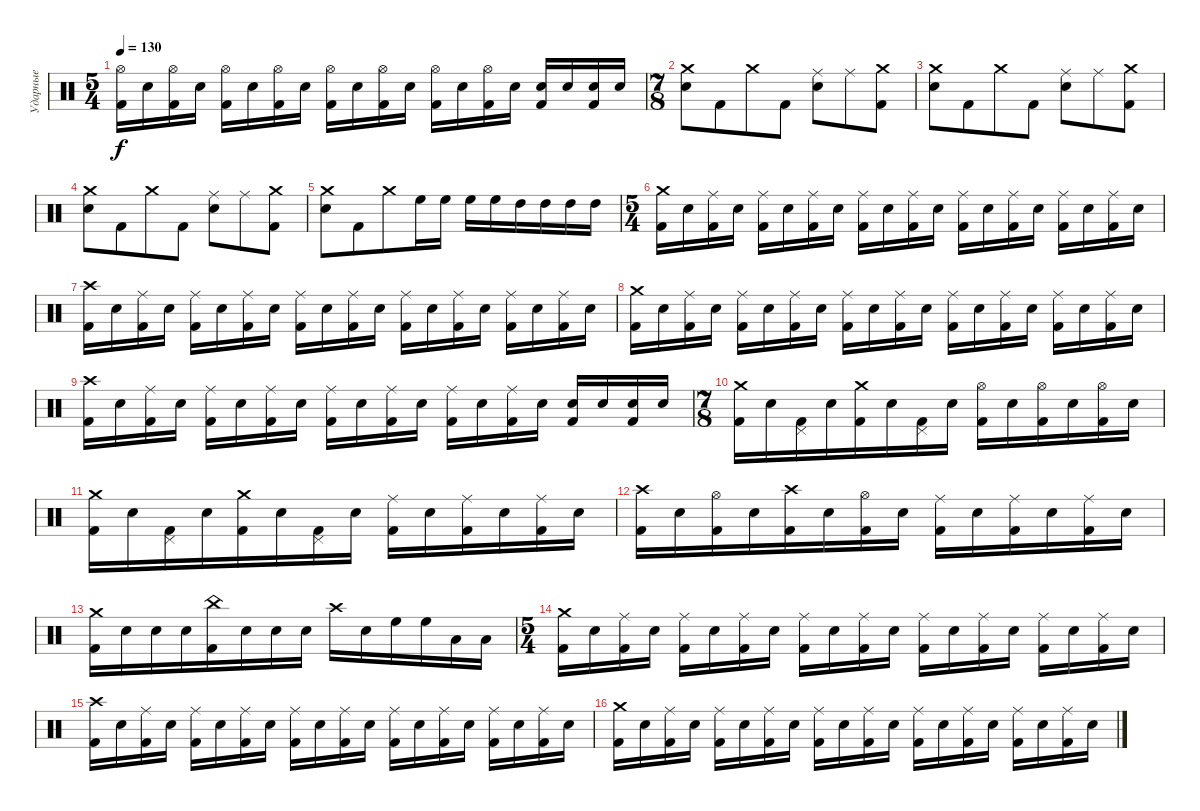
\track ("Ударные" "Ударные") {instrument percussion}
\staff {score}
\articulation defaults
\ts (5 4)
\tempo 130
\clef neutral
\ks c
("Hi-Hat (open)" "Kick (hit) 2").16{dy f} "Electric Snare (hit)".16 ("Hi-Hat (open)" "Kick (hit) 2").16 "Electric Snare (hit)".16 ("Hi-Hat (open)" "Kick (hit) 2").16 "Electric Snare (hit)".16 ("Hi-Hat (open)" "Kick (hit) 2").16 "Electric Snare (hit)".16 ("Hi-Hat (open)" "Kick (hit) 2").16 "Electric Snare (hit)".16 ("Hi-Hat (open)" "Kick (hit) 2").16 "Electric Snare (hit)".16 ("Hi-Hat (open)" "Kick (hit) 2").16 "Electric Snare (hit)".16 ("Hi-Hat (open)" "Kick (hit) 2").16 "Electric Snare (hit)".16 ("Electric Snare (hit)" "Kick (hit) 2").16 "Electric Snare (hit)".16 ("Electric Snare (hit)" "Kick (hit) 2").16 "Electric Snare (hit)".16 |
\ts (7 8)
("Crash medium (hit)" "Electric Snare (hit)").8 "Kick (hit) 2".8 "Crash medium (hit)".8 "Kick (hit) 2".8 ("Ride (middle)" "Electric Snare (hit)").8 "Ride (middle)".8 ("Crash medium (hit)" "Kick (hit) 2").8 |
("Crash medium (hit)" "Electric Snare (hit)").8 "Kick (hit) 2".8 "Crash medium (hit)".8 "Kick (hit) 2".8 ("Ride (middle)" "Electric Snare (hit)").8 "Ride (middle)".8 ("Crash medium (hit)" "Kick (hit) 2").8 |
("Crash medium (hit)" "Electric Snare (hit)").8 "Kick (hit) 2".8 "Crash medium (hit)".8 "Kick (hit) 2".8 ("Ride (middle)" "Electric Snare (hit)").8 "Ride (middle)".8 ("Crash medium (hit)" "Kick (hit) 2").8 |
("Crash medium (hit)" "Electric Snare (hit)").8 "Kick (hit) 2".8 "Crash medium (hit)".8 "High Floor Tom (hit)".16 "High Floor Tom (hit)".16 "High Floor Tom (hit)".16 "High Floor Tom (hit)".16 "High Tom (hit)".16 "High Tom (hit)".16 "High Tom (hit)".16 "High Tom (hit)".16 |
\ts (5 4)
("Crash medium (hit)" "Kick (hit) 2").16 "Electric Snare (hit)".16 ("Ride (middle)" "Kick (hit) 2").16 "Electric Snare (hit)".16 ("Ride (middle)" "Kick (hit) 2").16 "Electric Snare (hit)".16 ("Ride (middle)" "Kick (hit) 2").16 "Electric Snare (hit)".16 ("Ride (middle)" "Kick (hit) 2").16 "Electric Snare (hit)".16 ("Ride (middle)" "Kick (hit) 2").16 "Electric Snare (hit)".16 ("Ride (middle)" "Kick (hit) 2").16 "Electric Snare (hit)".16 ("Ride (middle)" "Kick (hit) 2").16 "Electric Snare (hit)".16 ("Ride (middle)" "Kick (hit) 2").16 "Electric Snare (hit)".16 ("Ride (middle)" "Kick (hit) 2").16 "Electric Snare (hit)".16 |
("Crash high (hit)" "Kick (hit) 2").16 "Electric Snare (hit)".16 ("Ride (middle)" "Kick (hit) 2").16 "Electric Snare (hit)".16 ("Ride (middle)" "Kick (hit) 2").16 "Electric Snare (hit)".16 ("Ride (middle)" "Kick (hit) 2").16 "Electric Snare (hit)".16 ("Ride (middle)" "Kick (hit) 2").16 "Electric Snare (hit)".16 ("Ride (middle)" "Kick (hit) 2").16 "Electric Snare (hit)".16 ("Ride (middle)" "Kick (hit) 2").16 "Electric Snare (hit)".16 ("Ride (middle)" "Kick (hit) 2").16 "Electric Snare (hit)".16 ("Ride (middle)" "Kick (hit) 2").16 "Electric Snare (hit)".16 ("Ride (middle)" "Kick (hit) 2").16 "Electric Snare (hit)".16 |
("Crash medium (hit)" "Kick (hit) 2").16 "Electric Snare (hit)".16 ("Ride (middle)" "Kick (hit) 2").16 "Electric Snare (hit)".16 ("Ride (middle)" "Kick (hit) 2").16 "Electric Snare (hit)".16 ("Ride (middle)" "Kick (hit) 2").16 "Electric Snare (hit)".16 ("Ride (middle)" "Kick (hit) 2").16 "Electric Snare (hit)".16 ("Ride (middle)" "Kick (hit) 2").16 "Electric Snare (hit)".16 ("Ride (middle)" "Kick (hit) 2").16 "Electric Snare (hit)".16 ("Ride (middle)" "Kick (hit) 2").16 "Electric Snare (hit)".16 ("Ride (middle)" "Kick (hit) 2").16 "Electric Snare (hit)".16 ("Ride (middle)" "Kick (hit) 2").16 "Electric Snare (hit)".16 |
("Crash high (hit)" "Kick (hit) 2").16 "Electric Snare (hit)".16 ("Ride (middle)" "Kick (hit) 2").16 "Electric Snare (hit)".16 ("Ride (middle)" "Kick (hit) 2").16 "Electric Snare (hit)".16 ("Ride (middle)" "Kick (hit) 2").16 "Electric Snare (hit)".16 ("Ride (middle)" "Kick (hit) 2").16 "Electric Snare (hit)".16 ("Ride (middle)" "Kick (hit) 2").16 "Electric Snare (hit)".16 ("Ride (middle)" "Kick (hit) 2").16 "Electric Snare (hit)".16 ("Ride (middle)" "Kick (hit) 2").16 "Electric Snare (hit)".16 ("Electric Snare (hit)" "Kick (hit) 2").16 "Electric Snare (hit)".16 ("Electric Snare (hit)" "Kick (hit) 2").16 "Electric Snare (hit)".16 |
\ts (7 8)
("Crash medium (hit)" "Kick (hit) 2").16 "Electric Snare (hit)".16 ("Pedal Hi-Hat (hit)" "Kick (hit) 2").16 "Electric Snare (hit)".16 ("Crash medium (hit)" "Kick (hit) 2").16 "Electric Snare (hit)".16 ("Pedal Hi-Hat (hit)" "Kick (hit) 2").16 "Electric Snare (hit)".16 ("Hi-Hat (open)" "Kick (hit) 2").16 "Electric Snare (hit)".16 ("Hi-Hat (open)" "Kick (hit) 2").16 "Electric Snare (hit)".16 ("Hi-Hat (open)" "Kick (hit) 2").16 "Electric Snare (hit)".16 |
("Crash medium (hit)" "Kick (hit) 2").16 "Electric Snare (hit)".16 ("Pedal Hi-Hat (hit)" "Kick (hit) 2").16 "Electric Snare (hit)".16 ("Crash medium (hit)" "Kick (hit) 2").16 "Electric Snare (hit)".16 ("Pedal Hi-Hat (hit)" "Kick (hit) 2").16 "Electric Snare (hit)".16 ("Ride (middle)" "Kick (hit) 2").16 "Electric Snare (hit)".16 ("Ride (middle)" "Kick (hit) 2").16 "Electric Snare (hit)".16 ("Ride (middle)" "Kick (hit) 2").16 "Electric Snare (hit)".16 |
("Crash high (hit)" "Kick (hit) 2").16 "Electric Snare (hit)".16 ("Hi-Hat (open)" "Kick (hit) 2").16 "Electric Snare (hit)".16 ("Crash high (hit)" "Kick (hit) 2").16 "Electric Snare (hit)".16 ("Hi-Hat (open)" "Kick (hit) 2").16 "Electric Snare (hit)".16 ("Ride (middle)" "Kick (hit) 2").16 "Electric Snare (hit)".16 ("Ride (middle)" "Kick (hit) 2").16 "Electric Snare (hit)".16 ("Ride (middle)" "Kick (hit) 2").16 "Electric Snare (hit)".16 |
("Crash medium (hit)" "Kick (hit) 2").16 "Electric Snare (hit)".16 "Electric Snare (hit)".16 "Electric Snare (hit)".16 ("China (hit)" "Kick (hit) 2").16 "Electric Snare (hit)".16 "Electric Snare (hit)".16 "Electric Snare (hit)".16 "Crash high (hit)".16 "Electric Snare (hit)".16 "High Floor Tom (hit)".16 "High Floor Tom (hit)".16 "Low Tom (hit)".16 "Low Tom (hit)".16 |
\ts (5 4)
("Crash medium (hit)" "Kick (hit) 2").16 "Electric Snare (hit)".16 ("Ride (middle)" "Kick (hit) 2").16 "Electric Snare (hit)".16 ("Ride (middle)" "Kick (hit) 2").16 "Electric Snare (hit)".16 ("Ride (middle)" "Kick (hit) 2").16 "Electric Snare (hit)".16 ("Ride (middle)" "Kick (hit) 2").16 "Electric Snare (hit)".16 ("Ride (middle)" "Kick (hit) 2").16 "Electric Snare (hit)".16 ("Ride (middle)" "Kick (hit) 2").16 "Electric Snare (hit)".16 ("Ride (middle)" "Kick (hit) 2").16 "Electric Snare (hit)".16 ("Ride (middle)" "Kick (hit) 2").16 "Electric Snare (hit)".16 ("Ride (middle)" "Kick (hit) 2").16 "Electric Snare (hit)".16 |
("Crash high (hit)" "Kick (hit) 2").16 "Electric Snare (hit)".16 ("Ride (middle)" "Kick (hit) 2").16 "Electric Snare (hit)".16 ("Ride (middle)" "Kick (hit) 2").16 "Electric Snare (hit)".16 ("Ride (middle)" "Kick (hit) 2").16 "Electric Snare (hit)".16 ("Ride (middle)" "Kick (hit) 2").16 "Electric Snare (hit)".16 ("Ride (middle)" "Kick (hit) 2").16 "Electric Snare (hit)".16 ("Ride (middle)" "Kick (hit) 2").16 "Electric Snare (hit)".16 ("Ride (middle)" "Kick (hit) 2").16 "Electric Snare (hit)".16 ("Ride (middle)" "Kick (hit) 2").16 "Electric Snare (hit)".16 ("Ride (middle)" "Kick (hit) 2").16 "Electric Snare (hit)".16 |
("Crash medium (hit)" "Kick (hit) 2").16 "Electric Snare (hit)".16 ("Ride (middle)" "Kick (hit) 2").16 "Electric Snare (hit)".16 ("Ride (middle)" "Kick (hit) 2").16 "Electric Snare (hit)".16 ("Ride (middle)" "Kick (hit) 2").16 "Electric Snare (hit)".16 ("Ride (middle)" "Kick (hit) 2").16 "Electric Snare (hit)".16 ("Ride (middle)" "Kick (hit) 2").16 "Electric Snare (hit)".16 ("Ride (middle)" "Kick (hit) 2").16 "Electric Snare (hit)".16 ("Ride (middle)" "Kick (hit) 2").16 "Electric Snare (hit)".16 ("Ride (middle)" "Kick (hit) 2").16 "Electric Snare (hit)".16 ("Ride (middle)" "Kick (hit) 2").16 "Electric Snare (hit)".16
